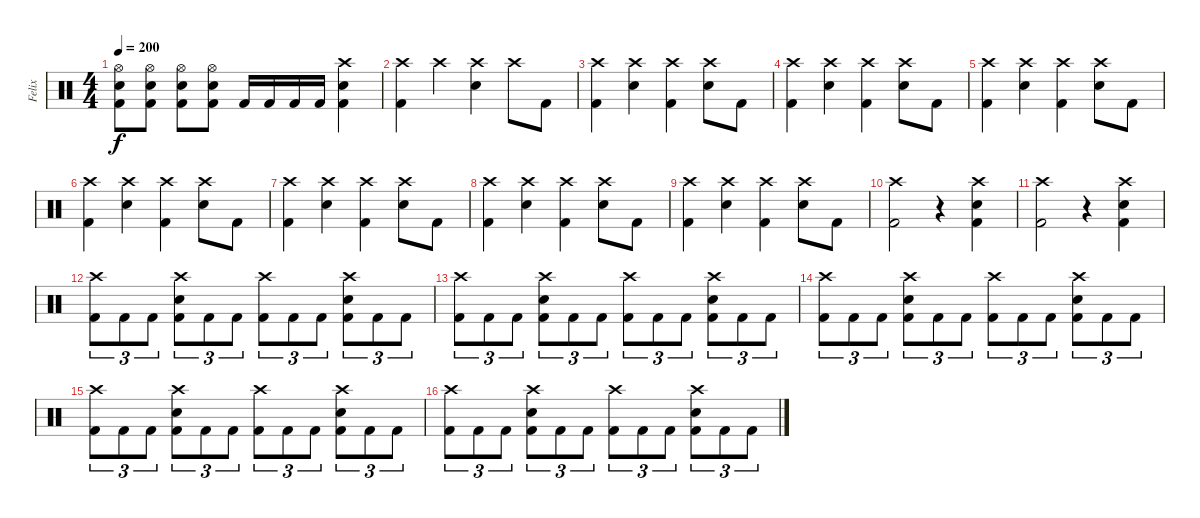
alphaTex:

\track ("Felix" "Felix") {instrument percussion}
\staff {score}
\articulation defaults
\ts (4 4)
\tempo 200
\clef neutral
\ks c
("Hi-Hat (open)" "Electric Snare (hit)" "Kick (hit) 2").8{dy f} ("Hi-Hat (open)" "Electric Snare (hit)" "Kick (hit) 2").8 ("Hi-Hat (open)" "Electric Snare (hit)" "Kick (hit) 2").8 ("Hi-Hat (open)" "Electric Snare (hit)" "Kick (hit) 2").8 "Kick (hit) 2".16 "Kick (hit) 2".16 "Kick (hit) 2".16 "Kick (hit) 2".16 ("Crash high (hit)" "Electric Snare (hit)" "Kick (hit) 2").4 |
("Crash high (hit)" "Kick (hit) 2").4 "Crash high (hit)".4 ("Crash high (hit)" "Electric Snare (hit)").4 "Crash high (hit)".8 "Kick (hit) 2".8 |
("Crash high (hit)" "Kick (hit) 2").4 ("Crash high (hit)" "Electric Snare (hit)").4 ("Crash high (hit)" "Kick (hit) 2").4 ("Crash high (hit)" "Electric Snare (hit)").8 "Kick (hit) 2".8 |
("Crash high (hit)" "Kick (hit) 2").4 ("Crash high (hit)" "Electric Snare (hit)").4 ("Crash high (hit)" "Kick (hit) 2").4 ("Crash high (hit)" "Electric Snare (hit)").8 "Kick (hit) 2".8 |
("Crash high (hit)" "Kick (hit) 2").4 ("Crash high (hit)" "Electric Snare (hit)").4 ("Crash high (hit)" "Kick (hit) 2").4 ("Crash high (hit)" "Electric Snare (hit)").8 "Kick (hit) 2".8 |
("Crash high (hit)" "Kick (hit) 2").4 ("Crash high (hit)" "Electric Snare (hit)").4 ("Crash high (hit)" "Kick (hit) 2").4 ("Crash high (hit)" "Electric Snare (hit)").8 "Kick (hit) 2".8 |
("Crash high (hit)" "Kick (hit) 2").4 ("Crash high (hit)" "Electric Snare (hit)").4 ("Crash high (hit)" "Kick (hit) 2").4 ("Crash high (hit)" "Electric Snare (hit)").8 "Kick (hit) 2".8 |
("Crash high (hit)" "Kick (hit) 2").4 ("Crash high (hit)" "Electric Snare (hit)").4 ("Crash high (hit)" "Kick (hit) 2").4 ("Crash high (hit)" "Electric Snare (hit)").8 "Kick (hit) 2".8 |
("Crash high (hit)" "Kick (hit) 2").4 ("Crash high (hit)" "Electric Snare (hit)").4 ("Crash high (hit)" "Kick (hit) 2").4 ("Crash high (hit)" "Electric Snare (hit)").8 "Kick (hit) 2".8 |
("Crash high (hit)" "Kick (hit) 2").2 r.4 ("Crash high (hit)" "Electric Snare (hit)" "Kick (hit) 2").4 |
("Crash high (hit)" "Kick (hit) 2").2 r.4 ("Crash high (hit)" "Electric Snare (hit)" "Kick (hit) 2").4 |
("Crash high (hit)" "Kick (hit) 2").8{tu (3 2)} "Kick (hit) 2".8{tu (3 2)} "Kick (hit) 2".8{tu (3 2)} ("Crash high (hit)" "Electric Snare (hit)" "Kick (hit) 2").8{tu (3 2)} "Kick (hit) 2".8{tu (3 2)} "Kick (hit) 2".8{tu (3 2)} ("Crash high (hit)" "Kick (hit) 2").8{tu (3 2)} "Kick (hit) 2".8{tu (3 2)} "Kick (hit) 2".8{tu (3 2)} ("Crash high (hit)" "Electric Snare (hit)" "Kick (hit) 2").8{tu (3 2)} "Kick (hit) 2".8{tu (3 2)} "Kick (hit) 2".8{tu (3 2)} |
("Crash high (hit)" "Kick (hit) 2").8{tu (3 2)} "Kick (hit) 2".8{tu (3 2)} "Kick (hit) 2".8{tu (3 2)} ("Crash high (hit)" "Electric Snare (hit)" "Kick (hit) 2").8{tu (3 2)} "Kick (hit) 2".8{tu (3 2)} "Kick (hit) 2".8{tu (3 2)} ("Crash high (hit)" "Kick (hit) 2").8{tu (3 2)} "Kick (hit) 2".8{tu (3 2)} "Kick (hit) 2".8{tu (3 2)} ("Crash high (hit)" "Electric Snare (hit)" "Kick (hit) 2").8{tu (3 2)} "Kick (hit) 2".8{tu (3 2)} "Kick (hit) 2".8{tu (3 2)} |
("Crash high (hit)" "Kick (hit) 2").8{tu (3 2)} "Kick (hit) 2".8{tu (3 2)} "Kick (hit) 2".8{tu (3 2)} ("Crash high (hit)" "Electric Snare (hit)" "Kick (hit) 2").8{tu (3 2)} "Kick (hit) 2".8{tu (3 2)} "Kick (hit) 2".8{tu (3 2)} ("Crash high (hit)" "Kick (hit) 2").8{tu (3 2)} "Kick (hit) 2".8{tu (3 2)} "Kick (hit) 2".8{tu (3 2)} ("Crash high (hit)" "Electric Snare (hit)" "Kick (hit) 2").8{tu (3 2)} "Kick (hit) 2".8{tu (3 2)} "Kick (hit) 2".8{tu (3 2)} |
("Crash high (hit)" "Kick (hit) 2").8{tu (3 2)} "Kick (hit) 2".8{tu (3 2)} "Kick (hit) 2".8{tu (3 2)} ("Crash high (hit)" "Electric Snare (hit)" "Kick (hit) 2").8{tu (3 2)} "Kick (hit) 2".8{tu (3 2)} "Kick (hit) 2".8{tu (3 2)} ("Crash high (hit)" "Kick (hit) 2").8{tu (3 2)} "Kick (hit) 2".8{tu (3 2)} "Kick (hit) 2".8{tu (3 2)} ("Crash high (hit)" "Electric Snare (hit)" "Kick (hit) 2").8{tu (3 2)} "Kick (hit) 2".8{tu (3 2)} "Kick (hit) 2".8{tu (3 2)} |
("Crash high (hit)" "Kick (hit) 2").8{tu (3 2)} "Kick (hit) 2".8{tu (3 2)} "Kick (hit) 2".8{tu (3 2)} ("Crash high (hit)" "Electric Snare (hit)" "Kick (hit) 2").8{tu (3 2)} "Kick (hit) 2".8{tu (3 2)} "Kick (hit) 2".8{tu (3 2)} ("Crash high (hit)" "Kick (hit) 2").8{tu (3 2)} "Kick (hit) 2".8{tu (3 2)} "Kick (hit) 2".8{tu (3 2)} ("Crash high (hit)" "Electric Snare (hit)" "Kick (hit) 2").8{tu (3 2)} "Kick (hit) 2".8{tu (3 2)} "Kick (hit) 2".8{tu (3 2)}
